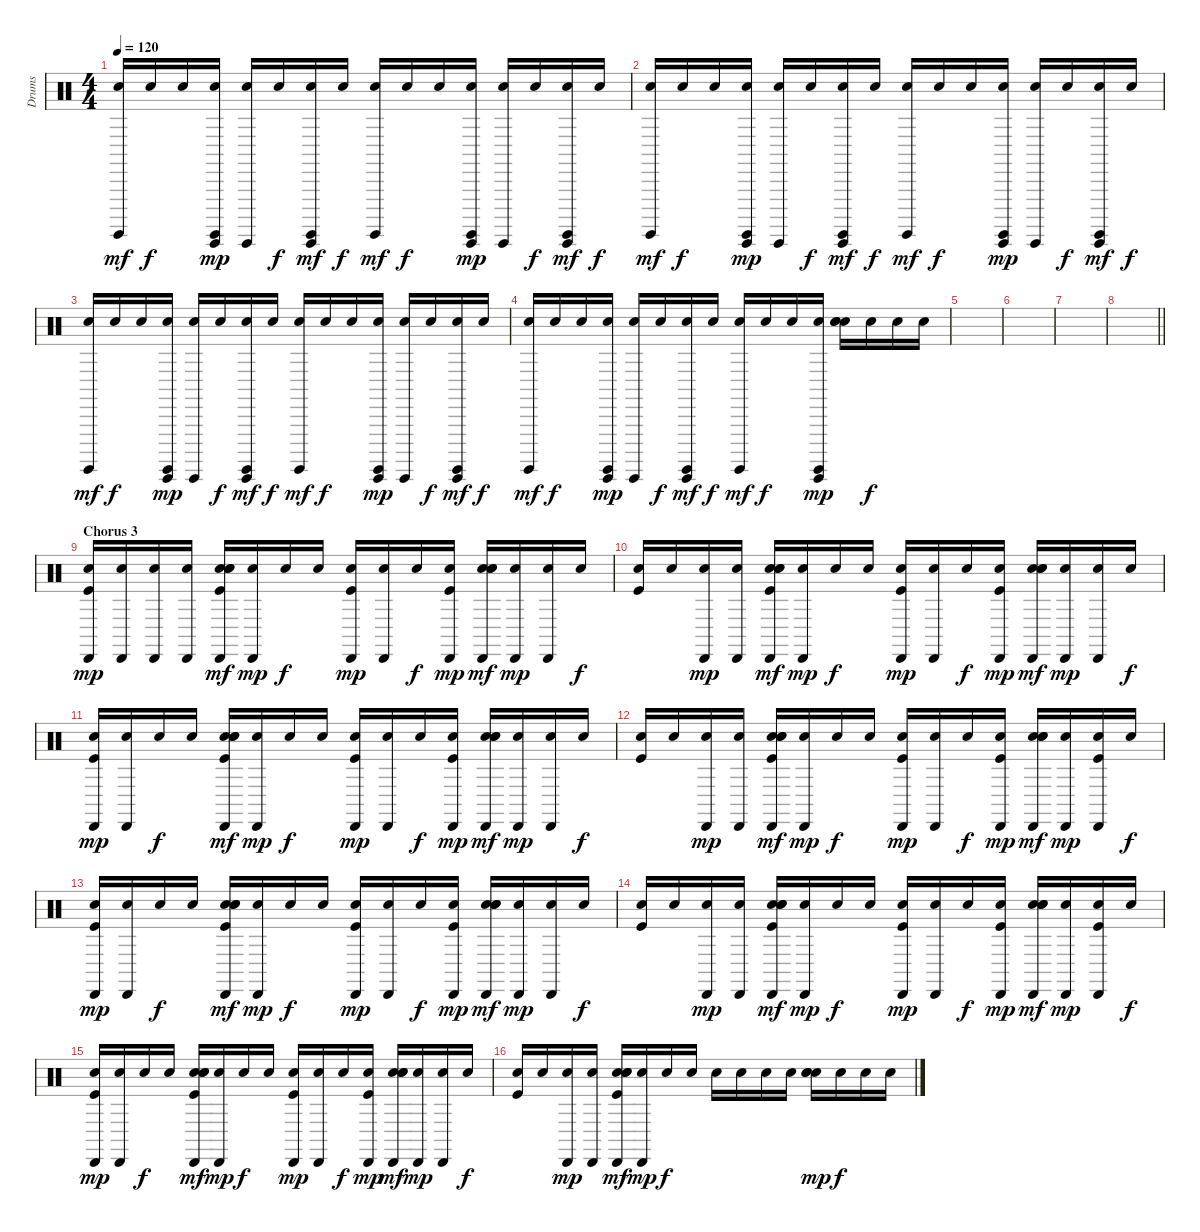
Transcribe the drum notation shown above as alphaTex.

\track ("Drums" "Drums") {instrument percussion}
\staff {score}
\articulation defaults
\ts (4 4)
\tempo 120
\clef neutral
\ks c
("Snare (hit)" "Surdo (hit)").16{dy mf} "Snare (hit)".16{dy f} "Snare (hit)".16 ("Snare (hit)" "Guiro (hit)" "Surdo (hit)").16{dy mp} ("Snare (hit)" "Guiro (hit)").16 "Snare (hit)".16{dy f} ("Snare (hit)" "Guiro (hit)" "Surdo (hit)").16{dy mf} "Snare (hit)".16{dy f} ("Snare (hit)" "Surdo (hit)").16{dy mf} "Snare (hit)".16{dy f} "Snare (hit)".16 ("Snare (hit)" "Guiro (hit)" "Surdo (hit)").16{dy mp} ("Snare (hit)" "Guiro (hit)").16 "Snare (hit)".16{dy f} ("Snare (hit)" "Guiro (hit)" "Surdo (hit)").16{dy mf} "Snare (hit)".16{dy f} |
("Snare (hit)" "Surdo (hit)").16{dy mf} "Snare (hit)".16{dy f} "Snare (hit)".16 ("Snare (hit)" "Guiro (hit)" "Surdo (hit)").16{dy mp} ("Snare (hit)" "Guiro (hit)").16 "Snare (hit)".16{dy f} ("Snare (hit)" "Guiro (hit)" "Surdo (hit)").16{dy mf} "Snare (hit)".16{dy f} ("Snare (hit)" "Surdo (hit)").16{dy mf} "Snare (hit)".16{dy f} "Snare (hit)".16 ("Snare (hit)" "Guiro (hit)" "Surdo (hit)").16{dy mp} ("Snare (hit)" "Guiro (hit)").16 "Snare (hit)".16{dy f} ("Snare (hit)" "Guiro (hit)" "Surdo (hit)").16{dy mf} "Snare (hit)".16{dy f} |
("Snare (hit)" "Surdo (hit)").16{dy mf} "Snare (hit)".16{dy f} "Snare (hit)".16 ("Snare (hit)" "Guiro (hit)" "Surdo (hit)").16{dy mp} ("Snare (hit)" "Guiro (hit)").16 "Snare (hit)".16{dy f} ("Snare (hit)" "Guiro (hit)" "Surdo (hit)").16{dy mf} "Snare (hit)".16{dy f} ("Snare (hit)" "Surdo (hit)").16{dy mf} "Snare (hit)".16{dy f} "Snare (hit)".16 ("Snare (hit)" "Guiro (hit)" "Surdo (hit)").16{dy mp} ("Snare (hit)" "Guiro (hit)").16 "Snare (hit)".16{dy f} ("Snare (hit)" "Guiro (hit)" "Surdo (hit)").16{dy mf} "Snare (hit)".16{dy f} |
("Snare (hit)" "Surdo (hit)").16{dy mf} "Snare (hit)".16{dy f} "Snare (hit)".16 ("Snare (hit)" "Guiro (hit)" "Surdo (hit)").16{dy mp} ("Snare (hit)" "Guiro (hit)").16 "Snare (hit)".16{dy f} ("Snare (hit)" "Guiro (hit)" "Surdo (hit)").16{dy mf} "Snare (hit)".16{dy f} ("Snare (hit)" "Surdo (hit)").16{dy mf} "Snare (hit)".16{dy f} "Snare (hit)".16 ("Snare (hit)" "Guiro (hit)" "Surdo (hit)").16{dy mp} ("Snare (hit)" "Hand Clap (hit)" "Electric Snare (hit)").16 "Snare (hit)".16{dy f} "Snare (hit)".16 "Snare (hit)".16 |
|
|
|
\barLineRight lightlight
|
\section ("" "Chorus 3")
("Snare (hit)" "Cabasa (hit)" "Kick (hit)").16{dy mp} ("Snare (hit)" "Cabasa (hit)").16 ("Snare (hit)" "Cabasa (hit)").16 ("Snare (hit)" "Cabasa (hit)").16 ("Snare (hit)" "Cabasa (hit)" "Hand Clap (hit)" "Electric Snare (hit)" "Kick (hit)").16{dy mf} ("Snare (hit)" "Cabasa (hit)").16{dy mp} "Snare (hit)".16{dy f} "Snare (hit)".16 ("Snare (hit)" "Cabasa (hit)" "Kick (hit)").16{dy mp} ("Snare (hit)" "Cabasa (hit)").16 "Snare (hit)".16{dy f} ("Snare (hit)" "Cabasa (hit)" "Kick (hit)").16{dy mp} ("Snare (hit)" "Cabasa (hit)" "Hand Clap (hit)" "Electric Snare (hit)").16{dy mf} ("Snare (hit)" "Cabasa (hit)").16{dy mp} ("Snare (hit)" "Cabasa (hit)").16 "Snare (hit)".16{dy f} |
("Snare (hit)" "Kick (hit)").16 "Snare (hit)".16 ("Snare (hit)" "Cabasa (hit)").16{dy mp} ("Snare (hit)" "Cabasa (hit)").16 ("Snare (hit)" "Cabasa (hit)" "Hand Clap (hit)" "Electric Snare (hit)" "Kick (hit)").16{dy mf} ("Snare (hit)" "Cabasa (hit)").16{dy mp} "Snare (hit)".16{dy f} "Snare (hit)".16 ("Snare (hit)" "Cabasa (hit)" "Kick (hit)").16{dy mp} ("Snare (hit)" "Cabasa (hit)").16 "Snare (hit)".16{dy f} ("Snare (hit)" "Cabasa (hit)" "Kick (hit)").16{dy mp} ("Snare (hit)" "Cabasa (hit)" "Hand Clap (hit)" "Electric Snare (hit)").16{dy mf} ("Snare (hit)" "Cabasa (hit)").16{dy mp} ("Snare (hit)" "Cabasa (hit)").16 "Snare (hit)".16{dy f} |
("Snare (hit)" "Cabasa (hit)" "Kick (hit)").16{dy mp} ("Snare (hit)" "Cabasa (hit)").16 "Snare (hit)".16{dy f} "Snare (hit)".16 ("Snare (hit)" "Cabasa (hit)" "Hand Clap (hit)" "Electric Snare (hit)" "Kick (hit)").16{dy mf} ("Snare (hit)" "Cabasa (hit)").16{dy mp} "Snare (hit)".16{dy f} "Snare (hit)".16 ("Snare (hit)" "Cabasa (hit)" "Kick (hit)").16{dy mp} ("Snare (hit)" "Cabasa (hit)").16 "Snare (hit)".16{dy f} ("Snare (hit)" "Cabasa (hit)" "Kick (hit)").16{dy mp} ("Snare (hit)" "Cabasa (hit)" "Hand Clap (hit)" "Electric Snare (hit)").16{dy mf} ("Snare (hit)" "Cabasa (hit)").16{dy mp} ("Snare (hit)" "Cabasa (hit)").16 "Snare (hit)".16{dy f} |
("Snare (hit)" "Kick (hit)").16 "Snare (hit)".16 ("Snare (hit)" "Cabasa (hit)").16{dy mp} ("Snare (hit)" "Cabasa (hit)").16 ("Snare (hit)" "Cabasa (hit)" "Hand Clap (hit)" "Electric Snare (hit)" "Kick (hit)").16{dy mf} ("Snare (hit)" "Cabasa (hit)").16{dy mp} "Snare (hit)".16{dy f} "Snare (hit)".16 ("Snare (hit)" "Cabasa (hit)" "Kick (hit)").16{dy mp} ("Snare (hit)" "Cabasa (hit)").16 "Snare (hit)".16{dy f} ("Snare (hit)" "Cabasa (hit)" "Kick (hit)").16{dy mp} ("Snare (hit)" "Cabasa (hit)" "Hand Clap (hit)" "Electric Snare (hit)").16{dy mf} ("Snare (hit)" "Cabasa (hit)").16{dy mp} ("Snare (hit)" "Cabasa (hit)" "Kick (hit)").16 "Snare (hit)".16{dy f} |
("Snare (hit)" "Cabasa (hit)" "Kick (hit)").16{dy mp} ("Snare (hit)" "Cabasa (hit)").16 "Snare (hit)".16{dy f} "Snare (hit)".16 ("Snare (hit)" "Cabasa (hit)" "Hand Clap (hit)" "Electric Snare (hit)" "Kick (hit)").16{dy mf} ("Snare (hit)" "Cabasa (hit)").16{dy mp} "Snare (hit)".16{dy f} "Snare (hit)".16 ("Snare (hit)" "Cabasa (hit)" "Kick (hit)").16{dy mp} ("Snare (hit)" "Cabasa (hit)").16 "Snare (hit)".16{dy f} ("Snare (hit)" "Cabasa (hit)" "Kick (hit)").16{dy mp} ("Snare (hit)" "Cabasa (hit)" "Hand Clap (hit)" "Electric Snare (hit)").16{dy mf} ("Snare (hit)" "Cabasa (hit)").16{dy mp} ("Snare (hit)" "Cabasa (hit)").16 "Snare (hit)".16{dy f} |
("Snare (hit)" "Kick (hit)").16 "Snare (hit)".16 ("Snare (hit)" "Cabasa (hit)").16{dy mp} ("Snare (hit)" "Cabasa (hit)").16 ("Snare (hit)" "Cabasa (hit)" "Hand Clap (hit)" "Electric Snare (hit)" "Kick (hit)").16{dy mf} ("Snare (hit)" "Cabasa (hit)").16{dy mp} "Snare (hit)".16{dy f} "Snare (hit)".16 ("Snare (hit)" "Cabasa (hit)" "Kick (hit)").16{dy mp} ("Snare (hit)" "Cabasa (hit)").16 "Snare (hit)".16{dy f} ("Snare (hit)" "Cabasa (hit)" "Kick (hit)").16{dy mp} ("Snare (hit)" "Cabasa (hit)" "Hand Clap (hit)" "Electric Snare (hit)").16{dy mf} ("Snare (hit)" "Cabasa (hit)").16{dy mp} ("Snare (hit)" "Cabasa (hit)" "Kick (hit)").16 "Snare (hit)".16{dy f} |
("Snare (hit)" "Cabasa (hit)" "Kick (hit)").16{dy mp} ("Snare (hit)" "Cabasa (hit)").16 "Snare (hit)".16{dy f} "Snare (hit)".16 ("Snare (hit)" "Cabasa (hit)" "Hand Clap (hit)" "Electric Snare (hit)" "Kick (hit)").16{dy mf} ("Snare (hit)" "Cabasa (hit)").16{dy mp} "Snare (hit)".16{dy f} "Snare (hit)".16 ("Snare (hit)" "Cabasa (hit)" "Kick (hit)").16{dy mp} ("Snare (hit)" "Cabasa (hit)").16 "Snare (hit)".16{dy f} ("Snare (hit)" "Cabasa (hit)" "Kick (hit)").16{dy mp} ("Snare (hit)" "Cabasa (hit)" "Hand Clap (hit)" "Electric Snare (hit)").16{dy mf} ("Snare (hit)" "Cabasa (hit)").16{dy mp} ("Snare (hit)" "Cabasa (hit)").16 "Snare (hit)".16{dy f} |
("Snare (hit)" "Kick (hit)").16 "Snare (hit)".16 ("Snare (hit)" "Cabasa (hit)").16{dy mp} ("Snare (hit)" "Cabasa (hit)").16 ("Snare (hit)" "Cabasa (hit)" "Hand Clap (hit)" "Electric Snare (hit)" "Kick (hit)").16{dy mf} ("Snare (hit)" "Cabasa (hit)").16{dy mp} "Snare (hit)".16{dy f} "Snare (hit)".16 "Snare (hit)".16 "Snare (hit)".16 "Snare (hit)".16 "Snare (hit)".16 ("Snare (hit)" "Hand Clap (hit)" "Electric Snare (hit)").16{dy mp} "Snare (hit)".16{dy f} "Snare (hit)".16 "Snare (hit)".16
